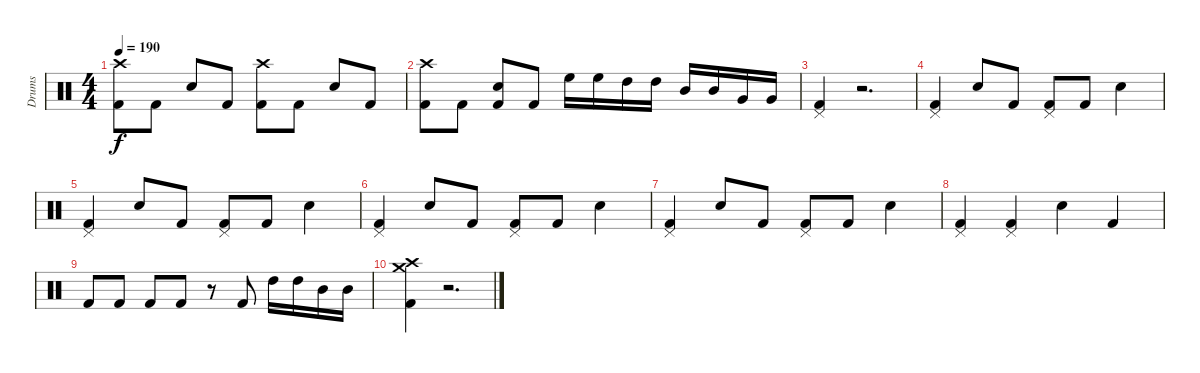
\track ("Drums" "Drums") {instrument percussion}
\staff {score}
\articulation defaults
\ts (4 4)
\tempo 190
\clef neutral
\ks c
("Crash high (hit)" "Kick (hit) 2").8{dy f} "Kick (hit) 2".8 "Electric Snare (hit)".8 "Kick (hit) 2".8 ("Crash high (hit)" "Kick (hit) 2").8 "Kick (hit) 2".8 "Electric Snare (hit)".8 "Kick (hit) 2".8 |
("Crash high (hit)" "Kick (hit) 2").8 "Kick (hit) 2".8 ("Electric Snare (hit)" "Kick (hit) 2").8 "Kick (hit) 2".8 "High Floor Tom (hit)".16 "High Floor Tom (hit)".16 "High Tom (hit)".16 "High Tom (hit)".16 "Mid Tom (hit)".16 "Mid Tom (hit)".16 "Very Low Tom (hit)".16 "Very Low Tom (hit)".16 |
("Pedal Hi-Hat (hit)" "Kick (hit) 2").4 r.2{d} |
("Pedal Hi-Hat (hit)" "Kick (hit) 2").4 "Electric Snare (hit)".8 "Kick (hit) 2".8 ("Pedal Hi-Hat (hit)" "Kick (hit) 2").8 "Kick (hit) 2".8 "Electric Snare (hit)".4 |
("Pedal Hi-Hat (hit)" "Kick (hit) 2").4 "Electric Snare (hit)".8 "Kick (hit) 2".8 ("Pedal Hi-Hat (hit)" "Kick (hit) 2").8 "Kick (hit) 2".8 "Electric Snare (hit)".4 |
("Pedal Hi-Hat (hit)" "Kick (hit) 2").4 "Electric Snare (hit)".8 "Kick (hit) 2".8 ("Pedal Hi-Hat (hit)" "Kick (hit) 2").8 "Kick (hit) 2".8 "Electric Snare (hit)".4 |
("Pedal Hi-Hat (hit)" "Kick (hit) 2").4 "Electric Snare (hit)".8 "Kick (hit) 2".8 ("Pedal Hi-Hat (hit)" "Kick (hit) 2").8 "Kick (hit) 2".8 "Electric Snare (hit)".4 |
("Pedal Hi-Hat (hit)" "Kick (hit) 2").4 ("Pedal Hi-Hat (hit)" "Kick (hit) 2").4 "Electric Snare (hit)".4 "Kick (hit) 2".4 |
"Kick (hit) 2".8 "Kick (hit) 2".8 "Kick (hit) 2".8 "Kick (hit) 2".8 r.8 "Kick (hit) 2".8 "High Tom (hit)".16 "High Tom (hit)".16 "Mid Tom (hit)".16 "Mid Tom (hit)".16 |
("Crash high (hit)" "Crash medium (hit)" "Kick (hit) 2").4 r.2{d}
